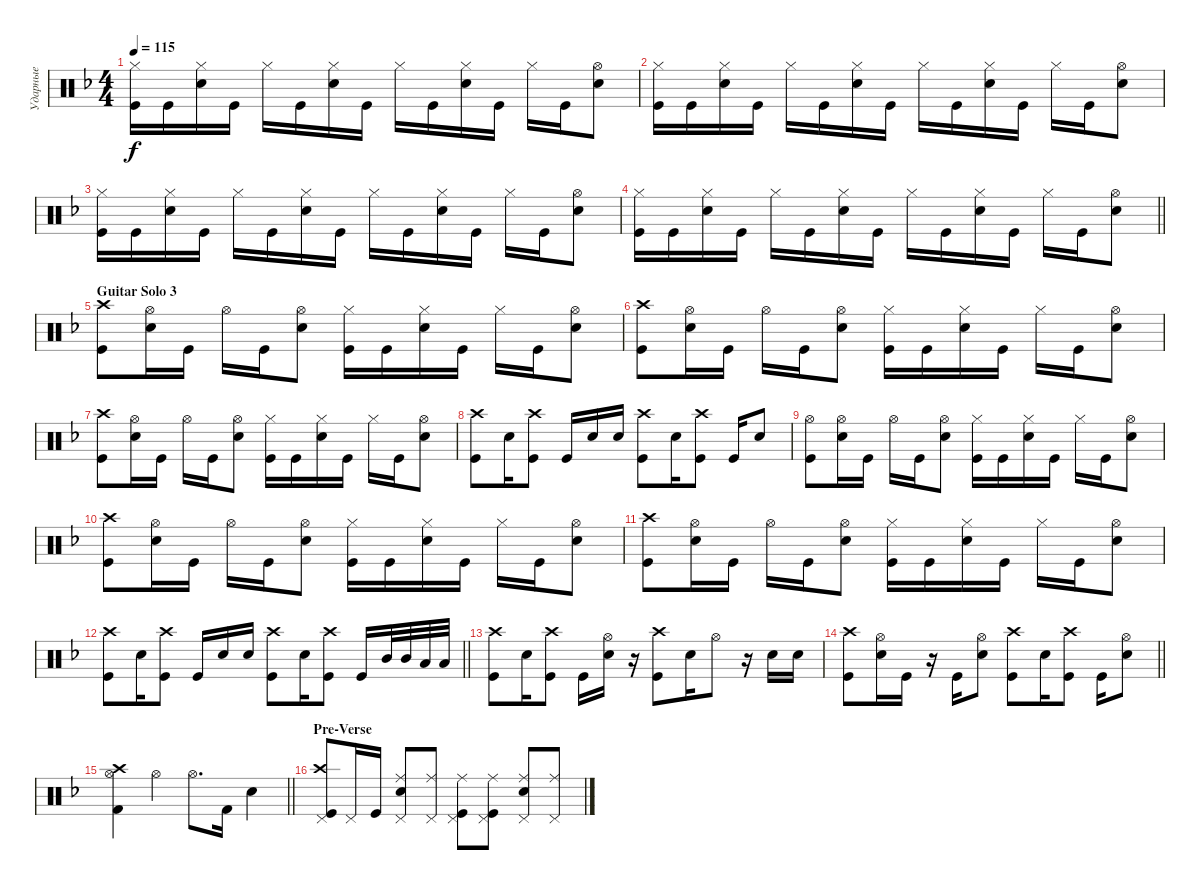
\track ("Ударные" "Ударные") {instrument percussion}
\staff {score}
\articulation defaults
\ts (4 4)
\tempo 115
\clef neutral
\ks dminor
("Hi-Hat (closed)" "Kick (hit)").16{dy f} "Kick (hit)".16 ("Snare (hit) 2" "Hi-Hat (closed)").16 "Kick (hit)".16 "Hi-Hat (closed)".16 "Kick (hit)".16 ("Snare (hit) 2" "Hi-Hat (closed)").16 "Kick (hit)".16 "Hi-Hat (closed)".16 "Kick (hit)".16 ("Snare (hit) 2" "Hi-Hat (closed)").16 "Kick (hit)".16 "Hi-Hat (closed)".16 "Kick (hit)".16 ("Snare (hit) 2" "Hi-Hat (open)").8 |
("Hi-Hat (closed)" "Kick (hit)").16 "Kick (hit)".16 ("Snare (hit) 2" "Hi-Hat (closed)").16 "Kick (hit)".16 "Hi-Hat (closed)".16 "Kick (hit)".16 ("Snare (hit) 2" "Hi-Hat (closed)").16 "Kick (hit)".16 "Hi-Hat (closed)".16 "Kick (hit)".16 ("Snare (hit) 2" "Hi-Hat (closed)").16 "Kick (hit)".16 "Hi-Hat (closed)".16 "Kick (hit)".16 ("Snare (hit) 2" "Hi-Hat (open)").8 |
("Hi-Hat (closed)" "Kick (hit)").16 "Kick (hit)".16 ("Snare (hit) 2" "Hi-Hat (closed)").16 "Kick (hit)".16 "Hi-Hat (closed)".16 "Kick (hit)".16 ("Snare (hit) 2" "Hi-Hat (closed)").16 "Kick (hit)".16 "Hi-Hat (closed)".16 "Kick (hit)".16 ("Snare (hit) 2" "Hi-Hat (closed)").16 "Kick (hit)".16 "Hi-Hat (closed)".16 "Kick (hit)".16 ("Snare (hit) 2" "Hi-Hat (open)").8 |
\barLineRight lightlight
("Hi-Hat (closed)" "Kick (hit)").16 "Kick (hit)".16 ("Snare (hit) 2" "Hi-Hat (closed)").16 "Kick (hit)".16 "Hi-Hat (closed)".16 "Kick (hit)".16 ("Snare (hit) 2" "Hi-Hat (closed)").16 "Kick (hit)".16 "Hi-Hat (closed)".16 "Kick (hit)".16 ("Snare (hit) 2" "Hi-Hat (closed)").16 "Kick (hit)".16 "Hi-Hat (closed)".16 "Kick (hit)".16 ("Snare (hit) 2" "Hi-Hat (open)").8 |
\section ("" "Guitar Solo 3")
("Kick (hit)" "Crash high (hit)").8 ("Snare (hit) 2" "Hi-Hat (open)").16 "Kick (hit)".16 "Hi-Hat (open)".16 "Kick (hit)".16 ("Snare (hit) 2" "Hi-Hat (open)").8 ("Kick (hit)" "Hi-Hat (closed)").16 "Kick (hit)".16 ("Snare (hit) 2" "Hi-Hat (closed)").16 "Kick (hit)".16 "Hi-Hat (closed)".16 "Kick (hit)".16 ("Snare (hit) 2" "Hi-Hat (open)").8 |
("Kick (hit)" "Crash high (hit)").8 ("Snare (hit) 2" "Hi-Hat (open)").16 "Kick (hit)".16 "Hi-Hat (open)".16 "Kick (hit)".16 ("Snare (hit) 2" "Hi-Hat (open)").8 ("Kick (hit)" "Hi-Hat (closed)").16 "Kick (hit)".16 ("Snare (hit) 2" "Hi-Hat (closed)").16 "Kick (hit)".16 "Hi-Hat (closed)".16 "Kick (hit)".16 ("Snare (hit) 2" "Hi-Hat (open)").8 |
("Kick (hit)" "Crash high (hit)").8 ("Snare (hit) 2" "Hi-Hat (open)").16 "Kick (hit)".16 "Hi-Hat (open)".16 "Kick (hit)".16 ("Snare (hit) 2" "Hi-Hat (open)").8 ("Kick (hit)" "Hi-Hat (closed)").16 "Kick (hit)".16 ("Snare (hit) 2" "Hi-Hat (closed)").16 "Kick (hit)".16 "Hi-Hat (closed)".16 "Kick (hit)".16 ("Snare (hit) 2" "Hi-Hat (open)").8 |
("Kick (hit)" "Crash high (hit)").8 "Snare (hit) 2".16 ("Kick (hit)" "Crash high (hit)").8 "Kick (hit)".16 "Snare (hit) 2".16 "Snare (hit) 2".16 ("Kick (hit)" "Crash high (hit)").8 "Snare (hit) 2".16 ("Kick (hit)" "Crash high (hit)").8 "Kick (hit)".16 "Snare (hit) 2".8 |
("Kick (hit)" "Hi-Hat (open)").8 ("Snare (hit) 2" "Hi-Hat (open)").16 "Kick (hit)".16 "Hi-Hat (open)".16 "Kick (hit)".16 ("Snare (hit) 2" "Hi-Hat (open)").8 ("Kick (hit)" "Hi-Hat (closed)").16 "Kick (hit)".16 ("Snare (hit) 2" "Hi-Hat (closed)").16 "Kick (hit)".16 "Hi-Hat (closed)".16 "Kick (hit)".16 ("Snare (hit) 2" "Hi-Hat (open)").8 |
("Kick (hit)" "Crash high (hit)").8 ("Snare (hit) 2" "Hi-Hat (open)").16 "Kick (hit)".16 "Hi-Hat (open)".16 "Kick (hit)".16 ("Snare (hit) 2" "Hi-Hat (open)").8 ("Kick (hit)" "Hi-Hat (closed)").16 "Kick (hit)".16 ("Snare (hit) 2" "Hi-Hat (closed)").16 "Kick (hit)".16 "Hi-Hat (closed)".16 "Kick (hit)".16 ("Snare (hit) 2" "Hi-Hat (open)").8 |
("Kick (hit)" "Crash high (hit)").8 ("Snare (hit) 2" "Hi-Hat (open)").16 "Kick (hit)".16 "Hi-Hat (open)".16 "Kick (hit)".16 ("Snare (hit) 2" "Hi-Hat (open)").8 ("Kick (hit)" "Hi-Hat (closed)").16 "Kick (hit)".16 ("Snare (hit) 2" "Hi-Hat (closed)").16 "Kick (hit)".16 "Hi-Hat (closed)".16 "Kick (hit)".16 ("Snare (hit) 2" "Hi-Hat (open)").8 |
\barLineRight lightlight
("Kick (hit)" "Crash high (hit)").8 "Snare (hit) 2".16 ("Kick (hit)" "Crash high (hit)").8 "Kick (hit)".16 "Snare (hit) 2".16 "Snare (hit) 2".16 ("Kick (hit)" "Crash high (hit)").8 "Snare (hit) 2".16 ("Kick (hit)" "Crash high (hit)").8 "Kick (hit)".16 "Mid Tom (hit)".32 "Mid Tom (hit)".32 "Low Tom (hit)".32 "Low Tom (hit)".32 |
("Kick (hit)" "Crash high (hit)").8 "Snare (hit) 2".16 ("Kick (hit)" "Crash high (hit)").8 "Kick (hit)".16 ("Snare (hit) 2" "Hi-Hat (open)").16 r.16 ("Kick (hit)" "Crash high (hit)").8 "Snare (hit) 2".16 "Hi-Hat (open)".8 r.16 "Snare (hit) 2".16 "Snare (hit) 2".16 |
\barLineRight lightlight
("Kick (hit)" "Crash high (hit)").8 ("Snare (hit) 2" "Hi-Hat (open)").16 "Kick (hit)".16 r.16 "Kick (hit)".16 ("Snare (hit) 2" "Hi-Hat (open)").8 ("Kick (hit)" "Crash high (hit)").8 "Snare (hit) 2".16 ("Kick (hit)" "Crash high (hit)").8 "Kick (hit)".16 ("Snare (hit) 2" "Hi-Hat (open)").8 |
\barLineRight lightlight
("Hi-Hat (open)" "Kick (hit) 2" "Crash high (hit)").4 "Hi-Hat (open)".4 "Hi-Hat (open)".8{d} "Kick (hit) 2".16 "Snare (hit) 2".4 |
\section ("" "Pre-Verse")
("Pedal Hi-Hat (hit)" "Kick (hit)" "Crash high (hit)").8 "Pedal Hi-Hat (hit)".16 "Kick (hit)".16 ("Ride (middle)" "Snare (hit) 2" "Pedal Hi-Hat (hit)").8 ("Ride (middle)" "Pedal Hi-Hat (hit)").8 ("Kick (hit)" "Ride (middle)" "Pedal Hi-Hat (hit)").8 ("Pedal Hi-Hat (hit)" "Ride (middle)" "Kick (hit)").8 ("Snare (hit) 2" "Ride (middle)" "Pedal Hi-Hat (hit)").8 ("Ride (middle)" "Pedal Hi-Hat (hit)").8
